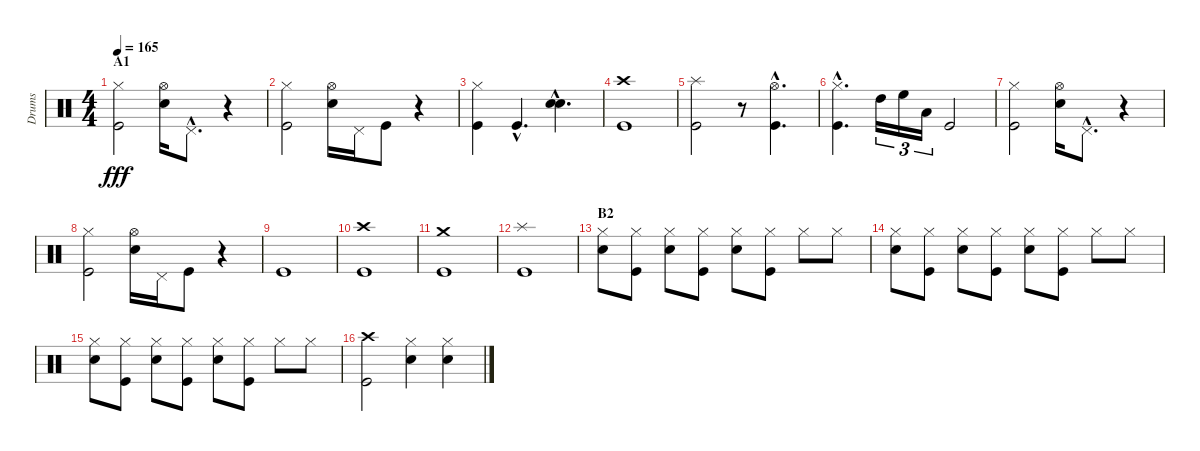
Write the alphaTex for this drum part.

\track ("Drums" "Drums") {instrument percussion}
\staff {score}
\articulation defaults
\ts (4 4)
\section ("" "A1")
\tempo 165
\clef neutral
\ks c
("Hi-Hat (closed)" "Kick (hit)").2{dy fff} ("Hi-Hat (open)" "Snare (hit) 2").16 "Pedal Hi-Hat (hit)"{hac}.8{d} r.4 |
("Hi-Hat (closed)" "Kick (hit)").2 ("Hi-Hat (open)" "Snare (hit) 2").16 "Pedal Hi-Hat (hit)".16 "Kick (hit)".8 r.4 |
("Hi-Hat (closed)" "Kick (hit)").4 "Kick (hit)"{hac}.4{d} ("Electric Snare (hit)"{hac} "Snare (hit) 2"{hac}).4{d} |
("Crash high (hit)" "Kick (hit)").1 |
("Splash (hit)" "Kick (hit)").2 r.8 ("Hi-Hat (open)"{hac} "Kick (hit)"{hac}).4{d} |
("Hi-Hat (closed)"{hac} "Kick (hit)"{hac}).4{d} "High Tom (hit)".16{tu (3 2)} "High Floor Tom (hit)".16{tu (3 2)} "Low Tom (hit)".16{tu (3 2)} "Kick (hit)".2 |
("Hi-Hat (closed)" "Kick (hit)").2 ("Hi-Hat (open)" "Snare (hit) 2").16 "Pedal Hi-Hat (hit)"{hac}.8{d} r.4 |
("Hi-Hat (closed)" "Kick (hit)").2 ("Hi-Hat (open)" "Snare (hit) 2").16 "Pedal Hi-Hat (hit)".16 "Kick (hit)".8 r.4 |
"Kick (hit)".1 |
("Crash high (hit)" "Kick (hit)").1 |
("Crash medium (hit)" "Kick (hit)").1 |
("Splash (hit)" "Kick (hit)").1 |
\section ("" "B2")
("Hi-Hat (closed)" "Snare (hit) 2").8 ("Hi-Hat (closed)" "Kick (hit)").8 ("Hi-Hat (closed)" "Snare (hit) 2").8 ("Hi-Hat (closed)" "Kick (hit)").8 ("Hi-Hat (closed)" "Snare (hit) 2").8 ("Hi-Hat (closed)" "Kick (hit)").8 "Hi-Hat (closed)".8 "Hi-Hat (closed)".8 |
("Hi-Hat (closed)" "Snare (hit) 2").8 ("Hi-Hat (closed)" "Kick (hit)").8 ("Hi-Hat (closed)" "Snare (hit) 2").8 ("Hi-Hat (closed)" "Kick (hit)").8 ("Hi-Hat (closed)" "Snare (hit) 2").8 ("Hi-Hat (closed)" "Kick (hit)").8 "Hi-Hat (closed)".8 "Hi-Hat (closed)".8 |
("Hi-Hat (closed)" "Snare (hit) 2").8 ("Hi-Hat (closed)" "Kick (hit)").8 ("Hi-Hat (closed)" "Snare (hit) 2").8 ("Hi-Hat (closed)" "Kick (hit)").8 ("Hi-Hat (closed)" "Snare (hit) 2").8 ("Hi-Hat (closed)" "Kick (hit)").8 "Hi-Hat (closed)".8 "Hi-Hat (closed)".8 |
("Crash high (hit)" "Kick (hit)").2 ("Hi-Hat (closed)" "Snare (hit) 2").4 ("Hi-Hat (closed)" "Snare (hit) 2").4
